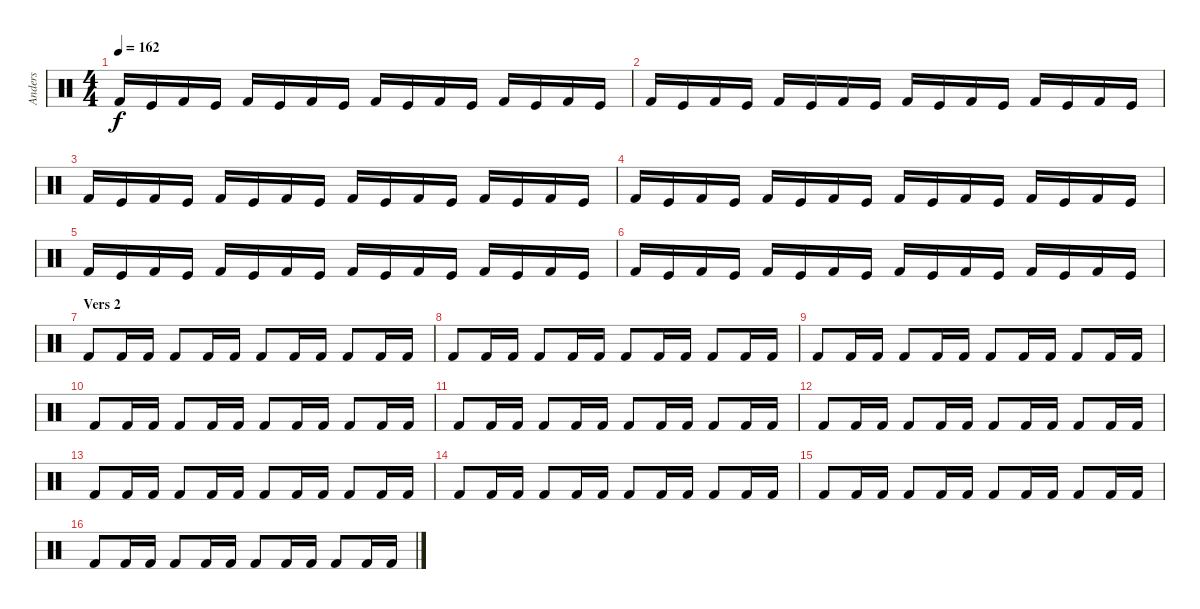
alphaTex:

\track ("Anders" "Anders") {instrument percussion}
\staff {score}
\articulation defaults
\ts (4 4)
\tempo 162
\clef neutral
\ks c "Kick (hit) 2".16{dy f} "Kick (hit)".16 "Kick (hit) 2".16 "Kick (hit)".16 "Kick (hit) 2".16 "Kick (hit)".16 "Kick (hit) 2".16 "Kick (hit)".16 "Kick (hit) 2".16 "Kick (hit)".16 "Kick (hit) 2".16 "Kick (hit)".16 "Kick (hit) 2".16 "Kick (hit)".16 "Kick (hit) 2".16 "Kick (hit)".16
|
"Kick (hit) 2".16 "Kick (hit)".16 "Kick (hit) 2".16 "Kick (hit)".16 "Kick (hit) 2".16 "Kick (hit)".16 "Kick (hit) 2".16 "Kick (hit)".16 "Kick (hit) 2".16 "Kick (hit)".16 "Kick (hit) 2".16 "Kick (hit)".16 "Kick (hit) 2".16 "Kick (hit)".16 "Kick (hit) 2".16 "Kick (hit)".16 |
"Kick (hit) 2".16 "Kick (hit)".16 "Kick (hit) 2".16 "Kick (hit)".16 "Kick (hit) 2".16 "Kick (hit)".16 "Kick (hit) 2".16 "Kick (hit)".16 "Kick (hit) 2".16 "Kick (hit)".16 "Kick (hit) 2".16 "Kick (hit)".16 "Kick (hit) 2".16 "Kick (hit)".16 "Kick (hit) 2".16 "Kick (hit)".16 |
"Kick (hit) 2".16 "Kick (hit)".16 "Kick (hit) 2".16 "Kick (hit)".16 "Kick (hit) 2".16 "Kick (hit)".16 "Kick (hit) 2".16 "Kick (hit)".16 "Kick (hit) 2".16 "Kick (hit)".16 "Kick (hit) 2".16 "Kick (hit)".16 "Kick (hit) 2".16 "Kick (hit)".16 "Kick (hit) 2".16 "Kick (hit)".16 |
"Kick (hit) 2".16 "Kick (hit)".16 "Kick (hit) 2".16 "Kick (hit)".16 "Kick (hit) 2".16 "Kick (hit)".16 "Kick (hit) 2".16 "Kick (hit)".16 "Kick (hit) 2".16 "Kick (hit)".16 "Kick (hit) 2".16 "Kick (hit)".16 "Kick (hit) 2".16 "Kick (hit)".16 "Kick (hit) 2".16 "Kick (hit)".16 |
"Kick (hit) 2".16 "Kick (hit)".16 "Kick (hit) 2".16 "Kick (hit)".16 "Kick (hit) 2".16 "Kick (hit)".16 "Kick (hit) 2".16 "Kick (hit)".16 "Kick (hit) 2".16 "Kick (hit)".16 "Kick (hit) 2".16 "Kick (hit)".16 "Kick (hit) 2".16 "Kick (hit)".16 "Kick (hit) 2".16 "Kick (hit)".16 |
\section ("" "Vers 2")
"Kick (hit) 2".8 "Kick (hit) 2".16 "Kick (hit) 2".16 "Kick (hit) 2".8 "Kick (hit) 2".16 "Kick (hit) 2".16 "Kick (hit) 2".8 "Kick (hit) 2".16 "Kick (hit) 2".16 "Kick (hit) 2".8 "Kick (hit) 2".16 "Kick (hit) 2".16 |
"Kick (hit) 2".8 "Kick (hit) 2".16 "Kick (hit) 2".16 "Kick (hit) 2".8 "Kick (hit) 2".16 "Kick (hit) 2".16 "Kick (hit) 2".8 "Kick (hit) 2".16 "Kick (hit) 2".16 "Kick (hit) 2".8 "Kick (hit) 2".16 "Kick (hit) 2".16 |
"Kick (hit) 2".8 "Kick (hit) 2".16 "Kick (hit) 2".16 "Kick (hit) 2".8 "Kick (hit) 2".16 "Kick (hit) 2".16 "Kick (hit) 2".8 "Kick (hit) 2".16 "Kick (hit) 2".16 "Kick (hit) 2".8 "Kick (hit) 2".16 "Kick (hit) 2".16 |
"Kick (hit) 2".8 "Kick (hit) 2".16 "Kick (hit) 2".16 "Kick (hit) 2".8 "Kick (hit) 2".16 "Kick (hit) 2".16 "Kick (hit) 2".8 "Kick (hit) 2".16 "Kick (hit) 2".16 "Kick (hit) 2".8 "Kick (hit) 2".16 "Kick (hit) 2".16 |
"Kick (hit) 2".8 "Kick (hit) 2".16 "Kick (hit) 2".16 "Kick (hit) 2".8 "Kick (hit) 2".16 "Kick (hit) 2".16 "Kick (hit) 2".8 "Kick (hit) 2".16 "Kick (hit) 2".16 "Kick (hit) 2".8 "Kick (hit) 2".16 "Kick (hit) 2".16 |
"Kick (hit) 2".8 "Kick (hit) 2".16 "Kick (hit) 2".16 "Kick (hit) 2".8 "Kick (hit) 2".16 "Kick (hit) 2".16 "Kick (hit) 2".8 "Kick (hit) 2".16 "Kick (hit) 2".16 "Kick (hit) 2".8 "Kick (hit) 2".16 "Kick (hit) 2".16 |
"Kick (hit) 2".8 "Kick (hit) 2".16 "Kick (hit) 2".16 "Kick (hit) 2".8 "Kick (hit) 2".16 "Kick (hit) 2".16 "Kick (hit) 2".8 "Kick (hit) 2".16 "Kick (hit) 2".16 "Kick (hit) 2".8 "Kick (hit) 2".16 "Kick (hit) 2".16 |
"Kick (hit) 2".8 "Kick (hit) 2".16 "Kick (hit) 2".16 "Kick (hit) 2".8 "Kick (hit) 2".16 "Kick (hit) 2".16 "Kick (hit) 2".8 "Kick (hit) 2".16 "Kick (hit) 2".16 "Kick (hit) 2".8 "Kick (hit) 2".16 "Kick (hit) 2".16 |
"Kick (hit) 2".8 "Kick (hit) 2".16 "Kick (hit) 2".16 "Kick (hit) 2".8 "Kick (hit) 2".16 "Kick (hit) 2".16 "Kick (hit) 2".8 "Kick (hit) 2".16 "Kick (hit) 2".16 "Kick (hit) 2".8 "Kick (hit) 2".16 "Kick (hit) 2".16 |
"Kick (hit) 2".8 "Kick (hit) 2".16 "Kick (hit) 2".16 "Kick (hit) 2".8 "Kick (hit) 2".16 "Kick (hit) 2".16 "Kick (hit) 2".8 "Kick (hit) 2".16 "Kick (hit) 2".16 "Kick (hit) 2".8 "Kick (hit) 2".16 "Kick (hit) 2".16
